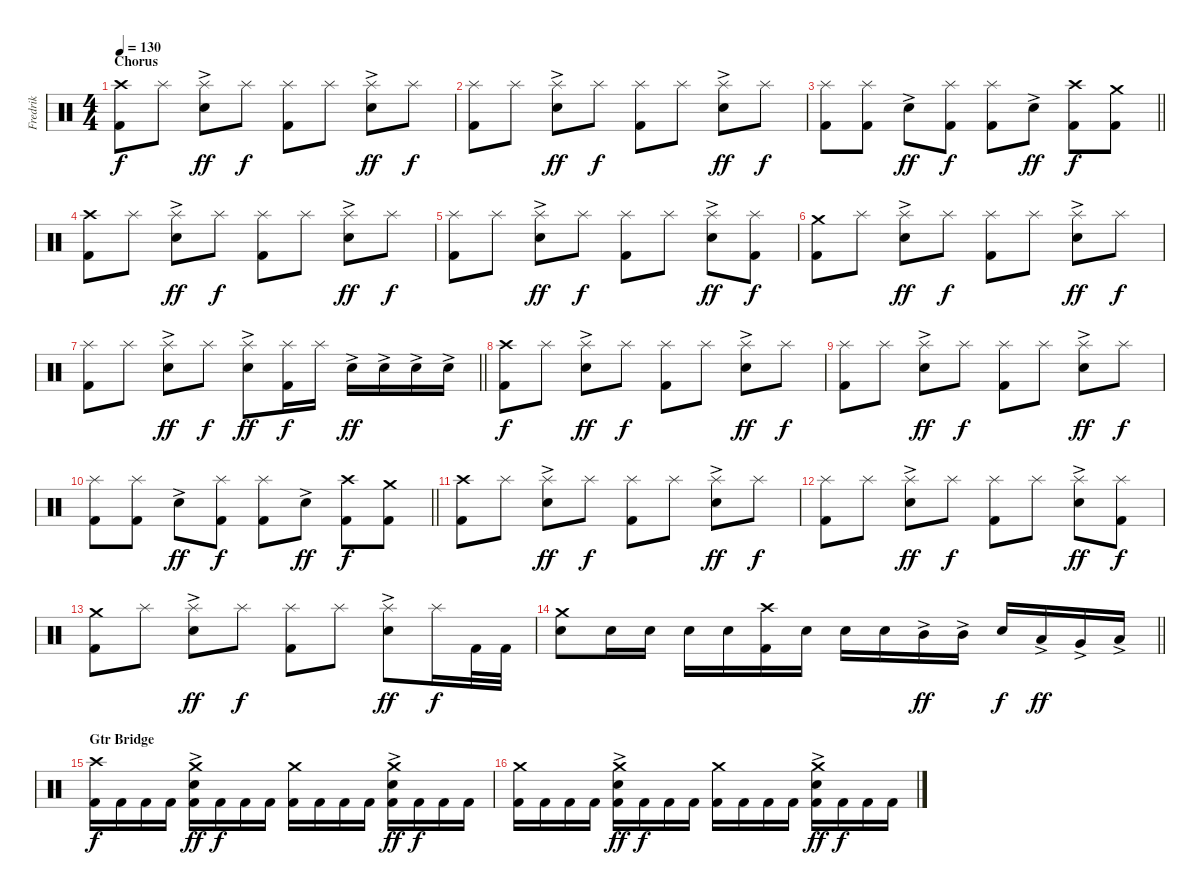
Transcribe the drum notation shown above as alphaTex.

\track ("Fredrik" "Fredrik") {instrument percussion}
\staff {score}
\articulation defaults
\ts (4 4)
\section ("" "Chorus")
\tempo 130
\clef neutral
\ks c
("Kick (hit) 2" "Crash high (hit)").8{dy f} "Splash (hit)".8 ("Snare (hit) 2"{ac} "Splash (hit)").8{dy ff} "Splash (hit)".8{dy f} ("Kick (hit) 2" "Splash (hit)").8 "Splash (hit)".8 ("Snare (hit) 2"{ac} "Splash (hit)").8{dy ff} "Splash (hit)".8{dy f} |
("Kick (hit) 2" "Splash (hit)").8 "Splash (hit)".8 ("Snare (hit) 2"{ac} "Splash (hit)").8{dy ff} "Splash (hit)".8{dy f} ("Kick (hit) 2" "Splash (hit)").8 "Splash (hit)".8 ("Snare (hit) 2"{ac} "Splash (hit)").8{dy ff} "Splash (hit)".8{dy f} |
\barLineRight lightlight
("Kick (hit) 2" "Splash (hit)").8 ("Kick (hit) 2" "Splash (hit)").8 "Snare (hit) 2"{ac}.8{dy ff} ("Kick (hit) 2" "Splash (hit)").8{dy f} ("Kick (hit) 2" "Splash (hit)").8 "Snare (hit) 2"{ac}.8{dy ff} ("Kick (hit) 2" "Crash high (hit)").8{dy f} ("Kick (hit) 2" "Crash medium (hit)").8 |
\section ("" "")
("Kick (hit) 2" "Crash high (hit)").8 "Splash (hit)".8 ("Snare (hit) 2"{ac} "Splash (hit)").8{dy ff} "Splash (hit)".8{dy f} ("Kick (hit) 2" "Splash (hit)").8 "Splash (hit)".8 ("Snare (hit) 2"{ac} "Splash (hit)").8{dy ff} "Splash (hit)".8{dy f} |
("Kick (hit) 2" "Splash (hit)").8 "Splash (hit)".8 ("Snare (hit) 2"{ac} "Splash (hit)").8{dy ff} "Splash (hit)".8{dy f} ("Kick (hit) 2" "Splash (hit)").8 "Splash (hit)".8 ("Snare (hit) 2"{ac} "Splash (hit)").8{dy ff} ("Kick (hit) 2" "Splash (hit)").8{dy f} |
("Kick (hit) 2" "Crash medium (hit)").8 "Splash (hit)".8 ("Snare (hit) 2"{ac} "Splash (hit)").8{dy ff} "Splash (hit)".8{dy f} ("Kick (hit) 2" "Splash (hit)").8 "Splash (hit)".8 ("Snare (hit) 2"{ac} "Splash (hit)").8{dy ff} "Splash (hit)".8{dy f} |
\barLineRight lightlight
("Kick (hit) 2" "Splash (hit)").8 "Splash (hit)".8 ("Snare (hit) 2"{ac} "Splash (hit)").8{dy ff} "Splash (hit)".8{dy f} ("Snare (hit) 2"{ac} "Splash (hit)").8{dy ff} ("Kick (hit) 2" "Splash (hit)").16{dy f} "Splash (hit)".16 "Snare (hit) 2"{ac}.16{dy ff} "Snare (hit) 2"{ac}.16 "Snare (hit) 2"{ac}.16 "Snare (hit) 2"{ac}.16 |
\section ("" "")
("Kick (hit) 2" "Crash high (hit)").8{dy f} "Splash (hit)".8 ("Snare (hit) 2"{ac} "Splash (hit)").8{dy ff} "Splash (hit)".8{dy f} ("Kick (hit) 2" "Splash (hit)").8 "Splash (hit)".8 ("Snare (hit) 2"{ac} "Splash (hit)").8{dy ff} "Splash (hit)".8{dy f} |
("Kick (hit) 2" "Splash (hit)").8 "Splash (hit)".8 ("Snare (hit) 2"{ac} "Splash (hit)").8{dy ff} "Splash (hit)".8{dy f} ("Kick (hit) 2" "Splash (hit)").8 "Splash (hit)".8 ("Snare (hit) 2"{ac} "Splash (hit)").8{dy ff} "Splash (hit)".8{dy f} |
\barLineRight lightlight
("Kick (hit) 2" "Splash (hit)").8 ("Kick (hit) 2" "Splash (hit)").8 "Snare (hit) 2"{ac}.8{dy ff} ("Kick (hit) 2" "Splash (hit)").8{dy f} ("Kick (hit) 2" "Splash (hit)").8 "Snare (hit) 2"{ac}.8{dy ff} ("Kick (hit) 2" "Crash high (hit)").8{dy f} ("Kick (hit) 2" "Crash medium (hit)").8 |
\section ("" "")
("Kick (hit) 2" "Crash high (hit)").8 "Splash (hit)".8 ("Snare (hit) 2"{ac} "Splash (hit)").8{dy ff} "Splash (hit)".8{dy f} ("Kick (hit) 2" "Splash (hit)").8 "Splash (hit)".8 ("Snare (hit) 2"{ac} "Splash (hit)").8{dy ff} "Splash (hit)".8{dy f} |
("Kick (hit) 2" "Splash (hit)").8 "Splash (hit)".8 ("Snare (hit) 2"{ac} "Splash (hit)").8{dy ff} "Splash (hit)".8{dy f} ("Kick (hit) 2" "Splash (hit)").8 "Splash (hit)".8 ("Snare (hit) 2"{ac} "Splash (hit)").8{dy ff} ("Kick (hit) 2" "Splash (hit)").8{dy f} |
("Kick (hit) 2" "Crash medium (hit)").8 "Splash (hit)".8 ("Snare (hit) 2"{ac} "Splash (hit)").8{dy ff} "Splash (hit)".8{dy f} ("Kick (hit) 2" "Splash (hit)").8 "Splash (hit)".8 ("Snare (hit) 2"{ac} "Splash (hit)").8{dy ff} "Splash (hit)".16{dy f} "Kick (hit) 2".32 "Kick (hit) 2".32 |
\barLineRight lightlight
("Snare (hit) 2" "Crash medium (hit)").8 "Snare (hit) 2".16 "Snare (hit) 2".16 "Snare (hit) 2".16 "Snare (hit) 2".16 ("Kick (hit) 2" "Crash high (hit)").16 "Snare (hit) 2".16 "Snare (hit) 2".16 "Snare (hit) 2".16 "Mid Tom (hit)"{ac}.16{dy ff} "Mid Tom (hit)"{ac}.16 "Snare (hit) 2".16{dy f} "Low Tom (hit)"{ac}.16{dy ff} "Very Low Tom (hit)"{ac}.16 "Low Floor Tom (hit)"{ac}.16 |
\section ("" "Gtr Bridge")
("Kick (hit) 2" "Crash high (hit)").16{dy f} "Kick (hit) 2".16 "Kick (hit) 2".16 "Kick (hit) 2".16 ("Kick (hit) 2" "Snare (hit) 2"{ac} "Crash medium (hit)").16{dy ff} "Kick (hit) 2".16{dy f} "Kick (hit) 2".16 "Kick (hit) 2".16 ("Kick (hit) 2" "Crash medium (hit)").16 "Kick (hit) 2".16 "Kick (hit) 2".16 "Kick (hit) 2".16 ("Kick (hit) 2" "Snare (hit) 2"{ac} "Crash medium (hit)").16{dy ff} "Kick (hit) 2".16{dy f} "Kick (hit) 2".16 "Kick (hit) 2".16 |
("Kick (hit) 2" "Crash medium (hit)").16 "Kick (hit) 2".16 "Kick (hit) 2".16 "Kick (hit) 2".16 ("Kick (hit) 2" "Snare (hit) 2"{ac} "Crash medium (hit)").16{dy ff} "Kick (hit) 2".16{dy f} "Kick (hit) 2".16 "Kick (hit) 2".16 ("Kick (hit) 2" "Crash medium (hit)").16 "Kick (hit) 2".16 "Kick (hit) 2".16 "Kick (hit) 2".16 ("Kick (hit) 2" "Snare (hit) 2"{ac} "Crash medium (hit)").16{dy ff} "Kick (hit) 2".16{dy f} "Kick (hit) 2".16 "Kick (hit) 2".16
